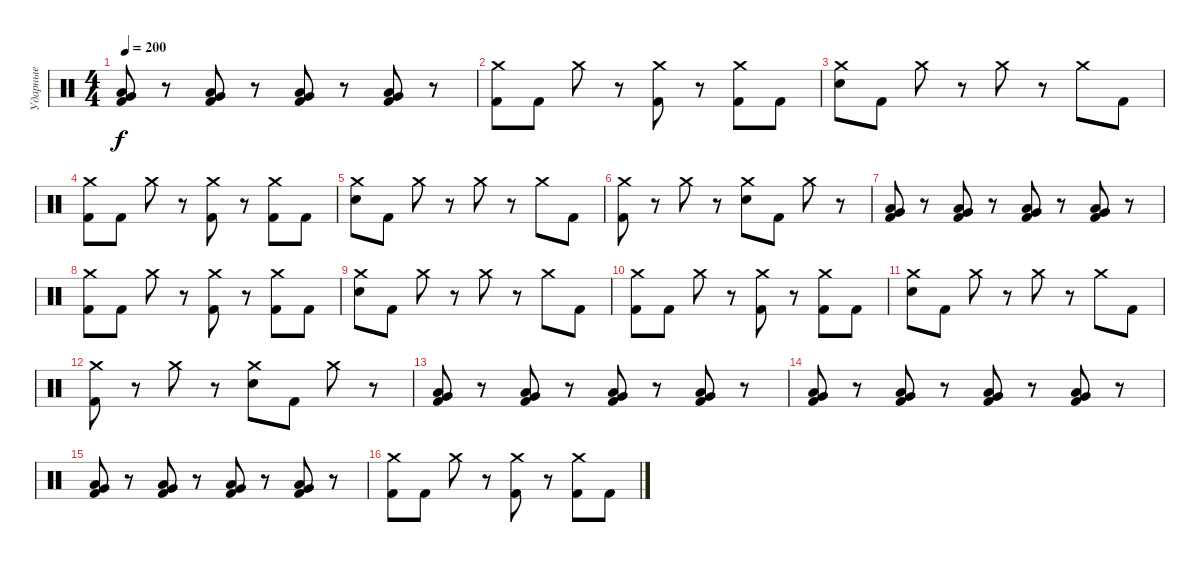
\track ("Ударные" "Ударные") {instrument percussion}
\staff {score}
\articulation defaults
\ts (4 4)
\tempo 200
\clef neutral
\ks c
("Low Floor Tom (hit)" "Very Low Tom (hit)" "Kick (hit) 2").8{dy f} r.8 ("Low Floor Tom (hit)" "Very Low Tom (hit)" "Kick (hit) 2").8 r.8 ("Low Floor Tom (hit)" "Very Low Tom (hit)" "Kick (hit) 2").8 r.8 ("Low Floor Tom (hit)" "Very Low Tom (hit)" "Kick (hit) 2").8 r.8 |
("Crash medium (hit)" "Kick (hit) 2").8 "Kick (hit) 2".8 "Crash medium (hit)".8 r.8 ("Crash medium (hit)" "Kick (hit) 2").8 r.8 ("Crash medium (hit)" "Kick (hit) 2").8 "Kick (hit) 2".8 |
("Crash medium (hit)" "Electric Snare (hit)").8 "Kick (hit) 2".8 "Crash medium (hit)".8 r.8 "Crash medium (hit)".8 r.8 "Crash medium (hit)".8 "Kick (hit) 2".8 |
("Crash medium (hit)" "Kick (hit) 2").8 "Kick (hit) 2".8 "Crash medium (hit)".8 r.8 ("Crash medium (hit)" "Kick (hit) 2").8 r.8 ("Crash medium (hit)" "Kick (hit) 2").8 "Kick (hit) 2".8 |
("Crash medium (hit)" "Electric Snare (hit)").8 "Kick (hit) 2".8 "Crash medium (hit)".8 r.8 "Crash medium (hit)".8 r.8 "Crash medium (hit)".8 "Kick (hit) 2".8 |
("Crash medium (hit)" "Kick (hit) 2").8 r.8 "Crash medium (hit)".8 r.8 ("Crash medium (hit)" "Electric Snare (hit)").8 "Kick (hit) 2".8 "Crash medium (hit)".8 r.8 |
("Low Floor Tom (hit)" "Very Low Tom (hit)" "Kick (hit) 2").8 r.8 ("Low Floor Tom (hit)" "Very Low Tom (hit)" "Kick (hit) 2").8 r.8 ("Low Floor Tom (hit)" "Very Low Tom (hit)" "Kick (hit) 2").8 r.8 ("Low Floor Tom (hit)" "Very Low Tom (hit)" "Kick (hit) 2").8 r.8 |
("Crash medium (hit)" "Kick (hit) 2").8 "Kick (hit) 2".8 "Crash medium (hit)".8 r.8 ("Crash medium (hit)" "Kick (hit) 2").8 r.8 ("Crash medium (hit)" "Kick (hit) 2").8 "Kick (hit) 2".8 |
("Crash medium (hit)" "Electric Snare (hit)").8 "Kick (hit) 2".8 "Crash medium (hit)".8 r.8 "Crash medium (hit)".8 r.8 "Crash medium (hit)".8 "Kick (hit) 2".8 |
("Crash medium (hit)" "Kick (hit) 2").8 "Kick (hit) 2".8 "Crash medium (hit)".8 r.8 ("Crash medium (hit)" "Kick (hit) 2").8 r.8 ("Crash medium (hit)" "Kick (hit) 2").8 "Kick (hit) 2".8 |
("Crash medium (hit)" "Electric Snare (hit)").8 "Kick (hit) 2".8 "Crash medium (hit)".8 r.8 "Crash medium (hit)".8 r.8 "Crash medium (hit)".8 "Kick (hit) 2".8 |
("Crash medium (hit)" "Kick (hit) 2").8 r.8 "Crash medium (hit)".8 r.8 ("Crash medium (hit)" "Electric Snare (hit)").8 "Kick (hit) 2".8 "Crash medium (hit)".8 r.8 |
("Low Floor Tom (hit)" "Very Low Tom (hit)" "Kick (hit) 2").8 r.8 ("Low Floor Tom (hit)" "Very Low Tom (hit)" "Kick (hit) 2").8 r.8 ("Low Floor Tom (hit)" "Very Low Tom (hit)" "Kick (hit) 2").8 r.8 ("Low Floor Tom (hit)" "Very Low Tom (hit)" "Kick (hit) 2").8 r.8 |
("Low Floor Tom (hit)" "Very Low Tom (hit)" "Kick (hit) 2").8 r.8 ("Low Floor Tom (hit)" "Very Low Tom (hit)" "Kick (hit) 2").8 r.8 ("Low Floor Tom (hit)" "Very Low Tom (hit)" "Kick (hit) 2").8 r.8 ("Low Floor Tom (hit)" "Very Low Tom (hit)" "Kick (hit) 2").8 r.8 |
("Low Floor Tom (hit)" "Very Low Tom (hit)" "Kick (hit) 2").8 r.8 ("Low Floor Tom (hit)" "Very Low Tom (hit)" "Kick (hit) 2").8 r.8 ("Low Floor Tom (hit)" "Very Low Tom (hit)" "Kick (hit) 2").8 r.8 ("Low Floor Tom (hit)" "Very Low Tom (hit)" "Kick (hit) 2").8 r.8 |
("Crash medium (hit)" "Kick (hit) 2").8 "Kick (hit) 2".8 "Crash medium (hit)".8 r.8 ("Crash medium (hit)" "Kick (hit) 2").8 r.8 ("Crash medium (hit)" "Kick (hit) 2").8 "Kick (hit) 2".8
